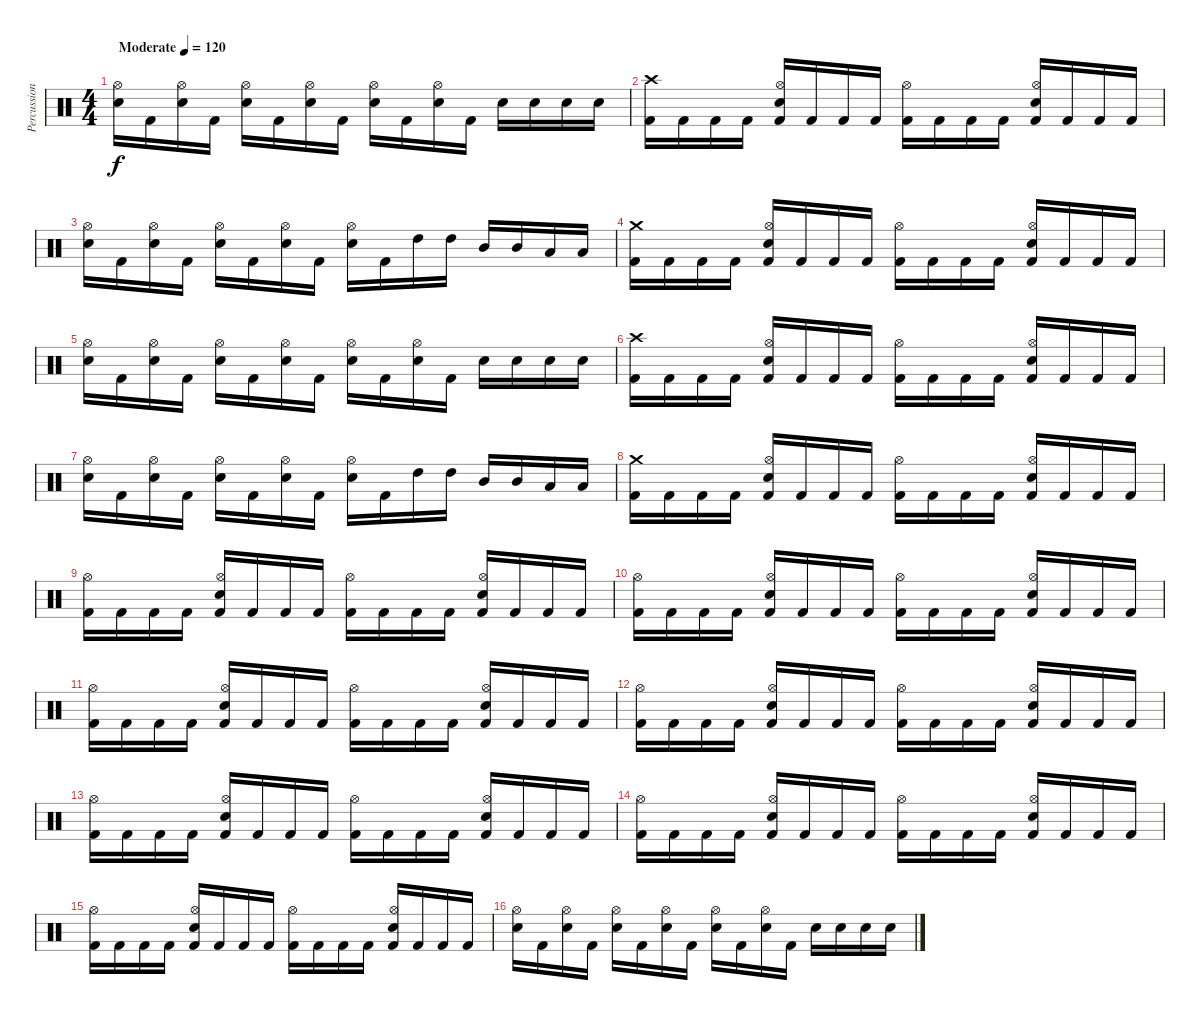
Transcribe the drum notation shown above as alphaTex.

\track ("Percussion" "Percussion") {instrument percussion}
\staff {score}
\articulation defaults
\ts (4 4)
\tempo (120 "Moderate")
\clef neutral
\ks c
("Electric Snare (hit)" "Hi-Hat (open)").16{dy f} "Kick (hit) 2".16 ("Electric Snare (hit)" "Hi-Hat (open)").16 "Kick (hit) 2".16 ("Electric Snare (hit)" "Hi-Hat (open)").16 "Kick (hit) 2".16 ("Electric Snare (hit)" "Hi-Hat (open)").16 "Kick (hit) 2".16 ("Electric Snare (hit)" "Hi-Hat (open)").16 "Kick (hit) 2".16 ("Electric Snare (hit)" "Hi-Hat (open)").16 "Kick (hit) 2".16 "Electric Snare (hit)".16 "Electric Snare (hit)".16 "Electric Snare (hit)".16 "Electric Snare (hit)".16 |
("Kick (hit) 2" "Crash high (hit)").16 "Kick (hit) 2".16 "Kick (hit) 2".16 "Kick (hit) 2".16 ("Kick (hit) 2" "Hi-Hat (open)" "Electric Snare (hit)").16 "Kick (hit) 2".16 "Kick (hit) 2".16 "Kick (hit) 2".16 ("Kick (hit) 2" "Hi-Hat (open)").16 "Kick (hit) 2".16 "Kick (hit) 2".16 "Kick (hit) 2".16 ("Kick (hit) 2" "Hi-Hat (open)" "Electric Snare (hit)").16 "Kick (hit) 2".16 "Kick (hit) 2".16 "Kick (hit) 2".16 |
("Electric Snare (hit)" "Hi-Hat (open)").16 "Kick (hit) 2".16 ("Electric Snare (hit)" "Hi-Hat (open)").16 "Kick (hit) 2".16 ("Electric Snare (hit)" "Hi-Hat (open)").16 "Kick (hit) 2".16 ("Electric Snare (hit)" "Hi-Hat (open)").16 "Kick (hit) 2".16 ("Electric Snare (hit)" "Hi-Hat (open)").16 "Kick (hit) 2".16 "High Tom (hit)".16 "High Tom (hit)".16 "Mid Tom (hit)".16 "Mid Tom (hit)".16 "Low Tom (hit)".16 "Low Tom (hit)".16 |
("Kick (hit) 2" "Crash medium (hit)").16 "Kick (hit) 2".16 "Kick (hit) 2".16 "Kick (hit) 2".16 ("Kick (hit) 2" "Hi-Hat (open)" "Electric Snare (hit)").16 "Kick (hit) 2".16 "Kick (hit) 2".16 "Kick (hit) 2".16 ("Kick (hit) 2" "Hi-Hat (open)").16 "Kick (hit) 2".16 "Kick (hit) 2".16 "Kick (hit) 2".16 ("Kick (hit) 2" "Hi-Hat (open)" "Electric Snare (hit)").16 "Kick (hit) 2".16 "Kick (hit) 2".16 "Kick (hit) 2".16 |
("Electric Snare (hit)" "Hi-Hat (open)").16 "Kick (hit) 2".16 ("Electric Snare (hit)" "Hi-Hat (open)").16 "Kick (hit) 2".16 ("Electric Snare (hit)" "Hi-Hat (open)").16 "Kick (hit) 2".16 ("Electric Snare (hit)" "Hi-Hat (open)").16 "Kick (hit) 2".16 ("Electric Snare (hit)" "Hi-Hat (open)").16 "Kick (hit) 2".16 ("Electric Snare (hit)" "Hi-Hat (open)").16 "Kick (hit) 2".16 "Electric Snare (hit)".16 "Electric Snare (hit)".16 "Electric Snare (hit)".16 "Electric Snare (hit)".16 |
("Kick (hit) 2" "Crash high (hit)").16 "Kick (hit) 2".16 "Kick (hit) 2".16 "Kick (hit) 2".16 ("Kick (hit) 2" "Hi-Hat (open)" "Electric Snare (hit)").16 "Kick (hit) 2".16 "Kick (hit) 2".16 "Kick (hit) 2".16 ("Kick (hit) 2" "Hi-Hat (open)").16 "Kick (hit) 2".16 "Kick (hit) 2".16 "Kick (hit) 2".16 ("Kick (hit) 2" "Hi-Hat (open)" "Electric Snare (hit)").16 "Kick (hit) 2".16 "Kick (hit) 2".16 "Kick (hit) 2".16 |
("Electric Snare (hit)" "Hi-Hat (open)").16 "Kick (hit) 2".16 ("Electric Snare (hit)" "Hi-Hat (open)").16 "Kick (hit) 2".16 ("Electric Snare (hit)" "Hi-Hat (open)").16 "Kick (hit) 2".16 ("Electric Snare (hit)" "Hi-Hat (open)").16 "Kick (hit) 2".16 ("Electric Snare (hit)" "Hi-Hat (open)").16 "Kick (hit) 2".16 "High Tom (hit)".16 "High Tom (hit)".16 "Mid Tom (hit)".16 "Mid Tom (hit)".16 "Low Tom (hit)".16 "Low Tom (hit)".16 |
("Kick (hit) 2" "Crash medium (hit)").16 "Kick (hit) 2".16 "Kick (hit) 2".16 "Kick (hit) 2".16 ("Kick (hit) 2" "Hi-Hat (open)" "Electric Snare (hit)").16 "Kick (hit) 2".16 "Kick (hit) 2".16 "Kick (hit) 2".16 ("Kick (hit) 2" "Hi-Hat (open)").16 "Kick (hit) 2".16 "Kick (hit) 2".16 "Kick (hit) 2".16 ("Kick (hit) 2" "Hi-Hat (open)" "Electric Snare (hit)").16 "Kick (hit) 2".16 "Kick (hit) 2".16 "Kick (hit) 2".16 |
("Kick (hit) 2" "Hi-Hat (open)").16 "Kick (hit) 2".16 "Kick (hit) 2".16 "Kick (hit) 2".16 ("Kick (hit) 2" "Hi-Hat (open)" "Electric Snare (hit)").16 "Kick (hit) 2".16 "Kick (hit) 2".16 "Kick (hit) 2".16 ("Kick (hit) 2" "Hi-Hat (open)").16 "Kick (hit) 2".16 "Kick (hit) 2".16 "Kick (hit) 2".16 ("Kick (hit) 2" "Hi-Hat (open)" "Electric Snare (hit)").16 "Kick (hit) 2".16 "Kick (hit) 2".16 "Kick (hit) 2".16 |
("Kick (hit) 2" "Hi-Hat (open)").16 "Kick (hit) 2".16 "Kick (hit) 2".16 "Kick (hit) 2".16 ("Kick (hit) 2" "Hi-Hat (open)" "Electric Snare (hit)").16 "Kick (hit) 2".16 "Kick (hit) 2".16 "Kick (hit) 2".16 ("Kick (hit) 2" "Hi-Hat (open)").16 "Kick (hit) 2".16 "Kick (hit) 2".16 "Kick (hit) 2".16 ("Kick (hit) 2" "Hi-Hat (open)" "Electric Snare (hit)").16 "Kick (hit) 2".16 "Kick (hit) 2".16 "Kick (hit) 2".16 |
("Kick (hit) 2" "Hi-Hat (open)").16 "Kick (hit) 2".16 "Kick (hit) 2".16 "Kick (hit) 2".16 ("Kick (hit) 2" "Hi-Hat (open)" "Electric Snare (hit)").16 "Kick (hit) 2".16 "Kick (hit) 2".16 "Kick (hit) 2".16 ("Kick (hit) 2" "Hi-Hat (open)").16 "Kick (hit) 2".16 "Kick (hit) 2".16 "Kick (hit) 2".16 ("Kick (hit) 2" "Hi-Hat (open)" "Electric Snare (hit)").16 "Kick (hit) 2".16 "Kick (hit) 2".16 "Kick (hit) 2".16 |
("Kick (hit) 2" "Hi-Hat (open)").16 "Kick (hit) 2".16 "Kick (hit) 2".16 "Kick (hit) 2".16 ("Kick (hit) 2" "Hi-Hat (open)" "Electric Snare (hit)").16 "Kick (hit) 2".16 "Kick (hit) 2".16 "Kick (hit) 2".16 ("Kick (hit) 2" "Hi-Hat (open)").16 "Kick (hit) 2".16 "Kick (hit) 2".16 "Kick (hit) 2".16 ("Kick (hit) 2" "Hi-Hat (open)" "Electric Snare (hit)").16 "Kick (hit) 2".16 "Kick (hit) 2".16 "Kick (hit) 2".16 |
("Kick (hit) 2" "Hi-Hat (open)").16 "Kick (hit) 2".16 "Kick (hit) 2".16 "Kick (hit) 2".16 ("Kick (hit) 2" "Hi-Hat (open)" "Electric Snare (hit)").16 "Kick (hit) 2".16 "Kick (hit) 2".16 "Kick (hit) 2".16 ("Kick (hit) 2" "Hi-Hat (open)").16 "Kick (hit) 2".16 "Kick (hit) 2".16 "Kick (hit) 2".16 ("Kick (hit) 2" "Hi-Hat (open)" "Electric Snare (hit)").16 "Kick (hit) 2".16 "Kick (hit) 2".16 "Kick (hit) 2".16 |
("Kick (hit) 2" "Hi-Hat (open)").16 "Kick (hit) 2".16 "Kick (hit) 2".16 "Kick (hit) 2".16 ("Kick (hit) 2" "Hi-Hat (open)" "Electric Snare (hit)").16 "Kick (hit) 2".16 "Kick (hit) 2".16 "Kick (hit) 2".16 ("Kick (hit) 2" "Hi-Hat (open)").16 "Kick (hit) 2".16 "Kick (hit) 2".16 "Kick (hit) 2".16 ("Kick (hit) 2" "Hi-Hat (open)" "Electric Snare (hit)").16 "Kick (hit) 2".16 "Kick (hit) 2".16 "Kick (hit) 2".16 |
("Kick (hit) 2" "Hi-Hat (open)").16 "Kick (hit) 2".16 "Kick (hit) 2".16 "Kick (hit) 2".16 ("Kick (hit) 2" "Hi-Hat (open)" "Electric Snare (hit)").16 "Kick (hit) 2".16 "Kick (hit) 2".16 "Kick (hit) 2".16 ("Kick (hit) 2" "Hi-Hat (open)").16 "Kick (hit) 2".16 "Kick (hit) 2".16 "Kick (hit) 2".16 ("Kick (hit) 2" "Hi-Hat (open)" "Electric Snare (hit)").16 "Kick (hit) 2".16 "Kick (hit) 2".16 "Kick (hit) 2".16 |
("Electric Snare (hit)" "Hi-Hat (open)").16 "Kick (hit) 2".16 ("Electric Snare (hit)" "Hi-Hat (open)").16 "Kick (hit) 2".16 ("Electric Snare (hit)" "Hi-Hat (open)").16 "Kick (hit) 2".16 ("Electric Snare (hit)" "Hi-Hat (open)").16 "Kick (hit) 2".16 ("Electric Snare (hit)" "Hi-Hat (open)").16 "Kick (hit) 2".16 ("Electric Snare (hit)" "Hi-Hat (open)").16 "Kick (hit) 2".16 "Electric Snare (hit)".16 "Electric Snare (hit)".16 "Electric Snare (hit)".16 "Electric Snare (hit)".16
